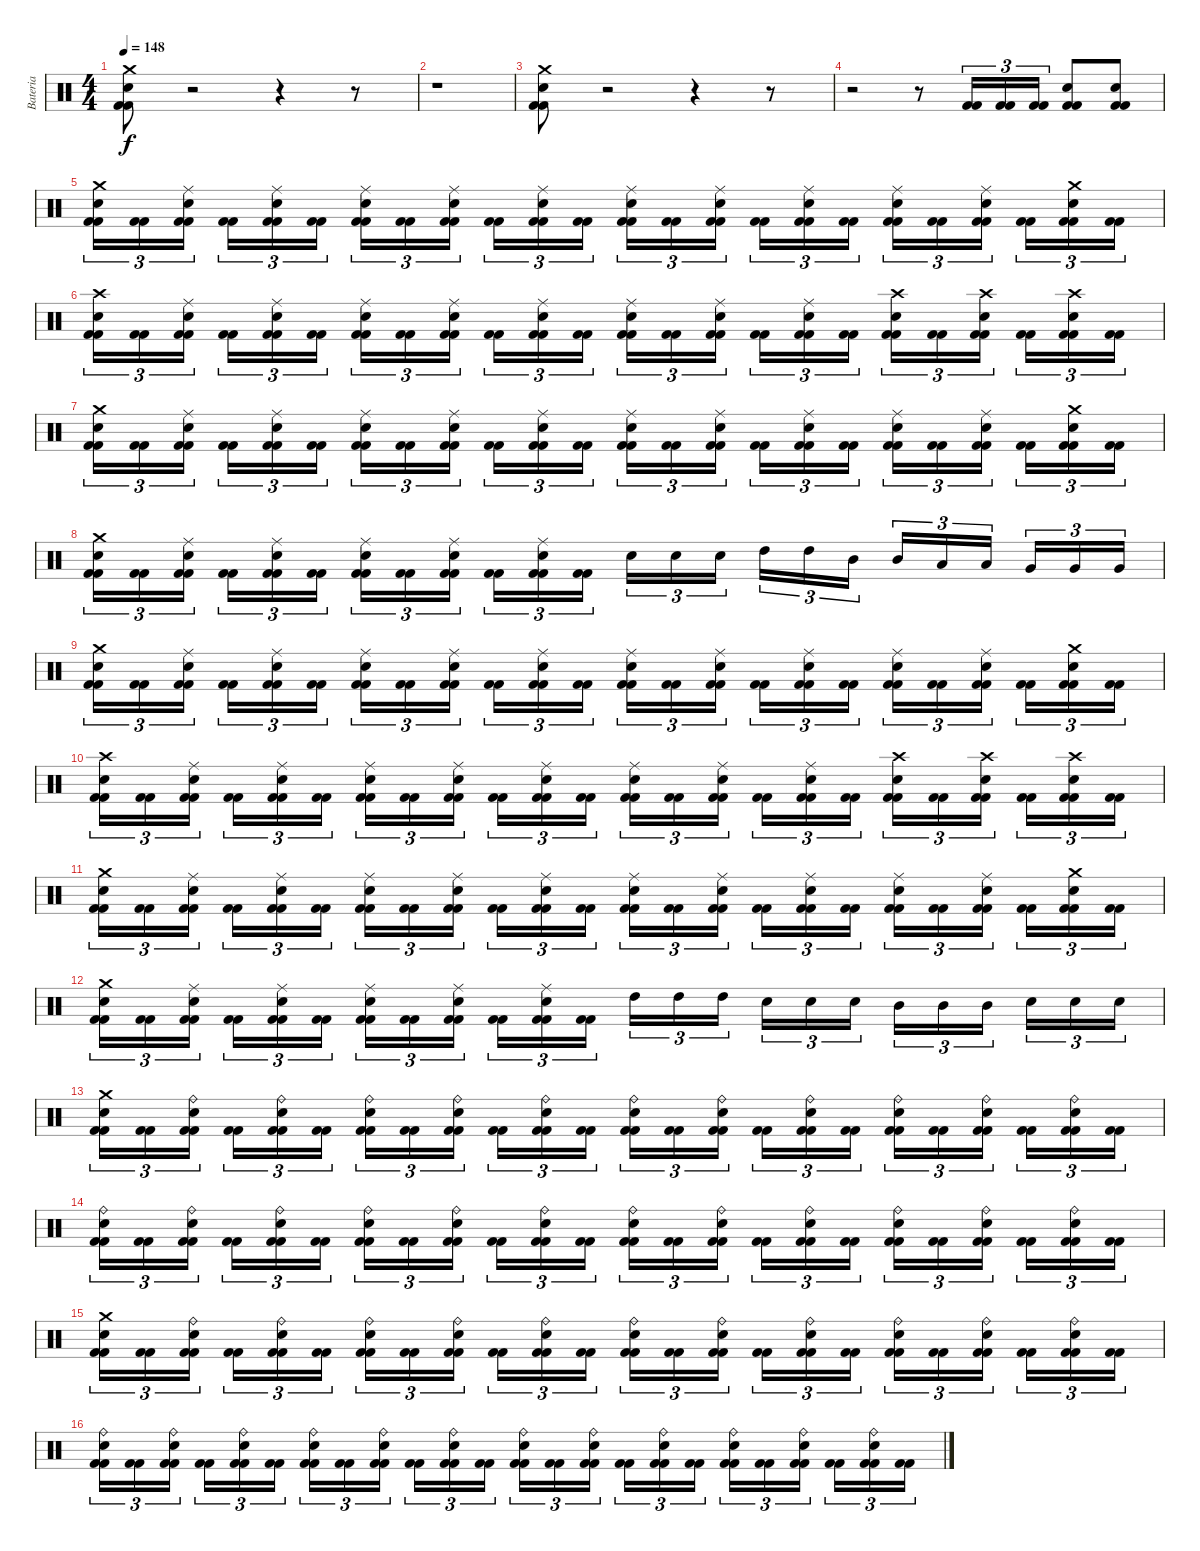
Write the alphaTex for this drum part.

\track ("Bateria" "Bateria") {instrument percussion}
\staff {score}
\articulation defaults
\ts (4 4)
\tempo 148
\clef neutral
\ks c
("Kick (hit) 2" "Kick (hit) 2" "Snare (hit) 2" "Crash medium (hit)").8{dy f} r.2 r.4 r.8 |
r.1 |
("Kick (hit) 2" "Kick (hit) 2" "Snare (hit) 2" "Crash medium (hit)").8 r.2 r.4 r.8 |
r.2 r.8 ("Kick (hit) 2" "Kick (hit) 2").16{tu (3 2)} ("Kick (hit) 2" "Kick (hit) 2").16{tu (3 2)} ("Kick (hit) 2" "Kick (hit) 2").16{tu (3 2)} ("Kick (hit) 2" "Kick (hit) 2" "Snare (hit) 2").8 ("Kick (hit) 2" "Kick (hit) 2" "Snare (hit) 2").8 |
("Kick (hit) 2" "Kick (hit) 2" "Snare (hit) 2" "Crash medium (hit)").16{tu (3 2)} ("Kick (hit) 2" "Kick (hit) 2").16{tu (3 2)} ("Kick (hit) 2" "Kick (hit) 2" "Snare (hit) 2" "Ride (middle)").16{tu (3 2)} ("Kick (hit) 2" "Kick (hit) 2").16{tu (3 2)} ("Kick (hit) 2" "Kick (hit) 2" "Snare (hit) 2" "Ride (middle)").16{tu (3 2)} ("Kick (hit) 2" "Kick (hit) 2").16{tu (3 2)} ("Kick (hit) 2" "Kick (hit) 2" "Snare (hit) 2" "Ride (middle)").16{tu (3 2)} ("Kick (hit) 2" "Kick (hit) 2").16{tu (3 2)} ("Kick (hit) 2" "Kick (hit) 2" "Snare (hit) 2" "Ride (middle)").16{tu (3 2)} ("Kick (hit) 2" "Kick (hit) 2").16{tu (3 2)} ("Kick (hit) 2" "Kick (hit) 2" "Snare (hit) 2" "Ride (middle)").16{tu (3 2)} ("Kick (hit) 2" "Kick (hit) 2").16{tu (3 2)} ("Kick (hit) 2" "Kick (hit) 2" "Snare (hit) 2" "Ride (middle)").16{tu (3 2)} ("Kick (hit) 2" "Kick (hit) 2").16{tu (3 2)} ("Kick (hit) 2" "Kick (hit) 2" "Snare (hit) 2" "Ride (middle)").16{tu (3 2)} ("Kick (hit) 2" "Kick (hit) 2").16{tu (3 2)} ("Kick (hit) 2" "Kick (hit) 2" "Snare (hit) 2" "Ride (middle)").16{tu (3 2)} ("Kick (hit) 2" "Kick (hit) 2").16{tu (3 2)} ("Kick (hit) 2" "Kick (hit) 2" "Snare (hit) 2" "Ride (middle)").16{tu (3 2)} ("Kick (hit) 2" "Kick (hit) 2").16{tu (3 2)} ("Kick (hit) 2" "Kick (hit) 2" "Snare (hit) 2" "Ride (middle)").16{tu (3 2)} ("Kick (hit) 2" "Kick (hit) 2").16{tu (3 2)} ("Kick (hit) 2" "Kick (hit) 2" "Snare (hit) 2" "Crash medium (hit)").16{tu (3 2)} ("Kick (hit) 2" "Kick (hit) 2").16{tu (3 2)} |
("Kick (hit) 2" "Kick (hit) 2" "Snare (hit) 2" "Crash high (hit)").16{tu (3 2)} ("Kick (hit) 2" "Kick (hit) 2").16{tu (3 2)} ("Kick (hit) 2" "Kick (hit) 2" "Snare (hit) 2" "Ride (middle)").16{tu (3 2)} ("Kick (hit) 2" "Kick (hit) 2").16{tu (3 2)} ("Kick (hit) 2" "Kick (hit) 2" "Snare (hit) 2" "Ride (middle)").16{tu (3 2)} ("Kick (hit) 2" "Kick (hit) 2").16{tu (3 2)} ("Kick (hit) 2" "Kick (hit) 2" "Snare (hit) 2" "Ride (middle)").16{tu (3 2)} ("Kick (hit) 2" "Kick (hit) 2").16{tu (3 2)} ("Kick (hit) 2" "Kick (hit) 2" "Snare (hit) 2" "Ride (middle)").16{tu (3 2)} ("Kick (hit) 2" "Kick (hit) 2").16{tu (3 2)} ("Kick (hit) 2" "Kick (hit) 2" "Snare (hit) 2" "Ride (middle)").16{tu (3 2)} ("Kick (hit) 2" "Kick (hit) 2").16{tu (3 2)} ("Kick (hit) 2" "Kick (hit) 2" "Snare (hit) 2" "Ride (middle)").16{tu (3 2)} ("Kick (hit) 2" "Kick (hit) 2").16{tu (3 2)} ("Kick (hit) 2" "Kick (hit) 2" "Snare (hit) 2" "Ride (middle)").16{tu (3 2)} ("Kick (hit) 2" "Kick (hit) 2").16{tu (3 2)} ("Kick (hit) 2" "Kick (hit) 2" "Snare (hit) 2" "Ride (middle)").16{tu (3 2)} ("Kick (hit) 2" "Kick (hit) 2").16{tu (3 2)} ("Kick (hit) 2" "Kick (hit) 2" "Snare (hit) 2" "Crash high (hit)").16{tu (3 2)} ("Kick (hit) 2" "Kick (hit) 2").16{tu (3 2)} ("Kick (hit) 2" "Kick (hit) 2" "Snare (hit) 2" "Crash high (hit)").16{tu (3 2)} ("Kick (hit) 2" "Kick (hit) 2").16{tu (3 2)} ("Kick (hit) 2" "Kick (hit) 2" "Snare (hit) 2" "Crash high (hit)").16{tu (3 2)} ("Kick (hit) 2" "Kick (hit) 2").16{tu (3 2)} |
("Kick (hit) 2" "Kick (hit) 2" "Snare (hit) 2" "Crash medium (hit)").16{tu (3 2)} ("Kick (hit) 2" "Kick (hit) 2").16{tu (3 2)} ("Kick (hit) 2" "Kick (hit) 2" "Snare (hit) 2" "Ride (middle)").16{tu (3 2)} ("Kick (hit) 2" "Kick (hit) 2").16{tu (3 2)} ("Kick (hit) 2" "Kick (hit) 2" "Snare (hit) 2" "Ride (middle)").16{tu (3 2)} ("Kick (hit) 2" "Kick (hit) 2").16{tu (3 2)} ("Kick (hit) 2" "Kick (hit) 2" "Snare (hit) 2" "Ride (middle)").16{tu (3 2)} ("Kick (hit) 2" "Kick (hit) 2").16{tu (3 2)} ("Kick (hit) 2" "Kick (hit) 2" "Snare (hit) 2" "Ride (middle)").16{tu (3 2)} ("Kick (hit) 2" "Kick (hit) 2").16{tu (3 2)} ("Kick (hit) 2" "Kick (hit) 2" "Snare (hit) 2" "Ride (middle)").16{tu (3 2)} ("Kick (hit) 2" "Kick (hit) 2").16{tu (3 2)} ("Kick (hit) 2" "Kick (hit) 2" "Snare (hit) 2" "Ride (middle)").16{tu (3 2)} ("Kick (hit) 2" "Kick (hit) 2").16{tu (3 2)} ("Kick (hit) 2" "Kick (hit) 2" "Snare (hit) 2" "Ride (middle)").16{tu (3 2)} ("Kick (hit) 2" "Kick (hit) 2").16{tu (3 2)} ("Kick (hit) 2" "Kick (hit) 2" "Snare (hit) 2" "Ride (middle)").16{tu (3 2)} ("Kick (hit) 2" "Kick (hit) 2").16{tu (3 2)} ("Kick (hit) 2" "Kick (hit) 2" "Snare (hit) 2" "Ride (middle)").16{tu (3 2)} ("Kick (hit) 2" "Kick (hit) 2").16{tu (3 2)} ("Kick (hit) 2" "Kick (hit) 2" "Snare (hit) 2" "Ride (middle)").16{tu (3 2)} ("Kick (hit) 2" "Kick (hit) 2").16{tu (3 2)} ("Kick (hit) 2" "Kick (hit) 2" "Snare (hit) 2" "Crash medium (hit)").16{tu (3 2)} ("Kick (hit) 2" "Kick (hit) 2").16{tu (3 2)} |
("Kick (hit) 2" "Kick (hit) 2" "Snare (hit) 2" "Crash medium (hit)").16{tu (3 2)} ("Kick (hit) 2" "Kick (hit) 2").16{tu (3 2)} ("Kick (hit) 2" "Kick (hit) 2" "Snare (hit) 2" "Ride (middle)").16{tu (3 2)} ("Kick (hit) 2" "Kick (hit) 2").16{tu (3 2)} ("Kick (hit) 2" "Kick (hit) 2" "Snare (hit) 2" "Ride (middle)").16{tu (3 2)} ("Kick (hit) 2" "Kick (hit) 2").16{tu (3 2)} ("Kick (hit) 2" "Kick (hit) 2" "Snare (hit) 2" "Ride (middle)").16{tu (3 2)} ("Kick (hit) 2" "Kick (hit) 2").16{tu (3 2)} ("Kick (hit) 2" "Kick (hit) 2" "Snare (hit) 2" "Ride (middle)").16{tu (3 2)} ("Kick (hit) 2" "Kick (hit) 2").16{tu (3 2)} ("Kick (hit) 2" "Kick (hit) 2" "Snare (hit) 2" "Ride (middle)").16{tu (3 2)} ("Kick (hit) 2" "Kick (hit) 2").16{tu (3 2)} "Snare (hit) 2".16{tu (3 2)} "Snare (hit) 2".16{tu (3 2)} "Snare (hit) 2".16{tu (3 2)} "High Tom (hit)".16{tu (3 2)} "High Tom (hit)".16{tu (3 2)} "Mid Tom (hit)".16{tu (3 2)} "Mid Tom (hit)".16{tu (3 2)} "Low Tom (hit)".16{tu (3 2)} "Low Tom (hit)".16{tu (3 2)} "Very Low Tom (hit)".16{tu (3 2)} "Very Low Tom (hit)".16{tu (3 2)} "Very Low Tom (hit)".16{tu (3 2)} |
("Kick (hit) 2" "Kick (hit) 2" "Snare (hit) 2" "Crash medium (hit)").16{tu (3 2)} ("Kick (hit) 2" "Kick (hit) 2").16{tu (3 2)} ("Kick (hit) 2" "Kick (hit) 2" "Snare (hit) 2" "Ride (middle)").16{tu (3 2)} ("Kick (hit) 2" "Kick (hit) 2").16{tu (3 2)} ("Kick (hit) 2" "Kick (hit) 2" "Snare (hit) 2" "Ride (middle)").16{tu (3 2)} ("Kick (hit) 2" "Kick (hit) 2").16{tu (3 2)} ("Kick (hit) 2" "Kick (hit) 2" "Snare (hit) 2" "Ride (middle)").16{tu (3 2)} ("Kick (hit) 2" "Kick (hit) 2").16{tu (3 2)} ("Kick (hit) 2" "Kick (hit) 2" "Snare (hit) 2" "Ride (middle)").16{tu (3 2)} ("Kick (hit) 2" "Kick (hit) 2").16{tu (3 2)} ("Kick (hit) 2" "Kick (hit) 2" "Snare (hit) 2" "Ride (middle)").16{tu (3 2)} ("Kick (hit) 2" "Kick (hit) 2").16{tu (3 2)} ("Kick (hit) 2" "Kick (hit) 2" "Snare (hit) 2" "Ride (middle)").16{tu (3 2)} ("Kick (hit) 2" "Kick (hit) 2").16{tu (3 2)} ("Kick (hit) 2" "Kick (hit) 2" "Snare (hit) 2" "Ride (middle)").16{tu (3 2)} ("Kick (hit) 2" "Kick (hit) 2").16{tu (3 2)} ("Kick (hit) 2" "Kick (hit) 2" "Snare (hit) 2" "Ride (middle)").16{tu (3 2)} ("Kick (hit) 2" "Kick (hit) 2").16{tu (3 2)} ("Kick (hit) 2" "Kick (hit) 2" "Snare (hit) 2" "Ride (middle)").16{tu (3 2)} ("Kick (hit) 2" "Kick (hit) 2").16{tu (3 2)} ("Kick (hit) 2" "Kick (hit) 2" "Snare (hit) 2" "Ride (middle)").16{tu (3 2)} ("Kick (hit) 2" "Kick (hit) 2").16{tu (3 2)} ("Kick (hit) 2" "Kick (hit) 2" "Snare (hit) 2" "Crash medium (hit)").16{tu (3 2)} ("Kick (hit) 2" "Kick (hit) 2").16{tu (3 2)} |
("Kick (hit) 2" "Kick (hit) 2" "Snare (hit) 2" "Crash high (hit)").16{tu (3 2)} ("Kick (hit) 2" "Kick (hit) 2").16{tu (3 2)} ("Kick (hit) 2" "Kick (hit) 2" "Snare (hit) 2" "Ride (middle)").16{tu (3 2)} ("Kick (hit) 2" "Kick (hit) 2").16{tu (3 2)} ("Kick (hit) 2" "Kick (hit) 2" "Snare (hit) 2" "Ride (middle)").16{tu (3 2)} ("Kick (hit) 2" "Kick (hit) 2").16{tu (3 2)} ("Kick (hit) 2" "Kick (hit) 2" "Snare (hit) 2" "Ride (middle)").16{tu (3 2)} ("Kick (hit) 2" "Kick (hit) 2").16{tu (3 2)} ("Kick (hit) 2" "Kick (hit) 2" "Snare (hit) 2" "Ride (middle)").16{tu (3 2)} ("Kick (hit) 2" "Kick (hit) 2").16{tu (3 2)} ("Kick (hit) 2" "Kick (hit) 2" "Snare (hit) 2" "Ride (middle)").16{tu (3 2)} ("Kick (hit) 2" "Kick (hit) 2").16{tu (3 2)} ("Kick (hit) 2" "Kick (hit) 2" "Snare (hit) 2" "Ride (middle)").16{tu (3 2)} ("Kick (hit) 2" "Kick (hit) 2").16{tu (3 2)} ("Kick (hit) 2" "Kick (hit) 2" "Snare (hit) 2" "Ride (middle)").16{tu (3 2)} ("Kick (hit) 2" "Kick (hit) 2").16{tu (3 2)} ("Kick (hit) 2" "Kick (hit) 2" "Snare (hit) 2" "Ride (middle)").16{tu (3 2)} ("Kick (hit) 2" "Kick (hit) 2").16{tu (3 2)} ("Kick (hit) 2" "Kick (hit) 2" "Snare (hit) 2" "Crash high (hit)").16{tu (3 2)} ("Kick (hit) 2" "Kick (hit) 2").16{tu (3 2)} ("Kick (hit) 2" "Kick (hit) 2" "Snare (hit) 2" "Crash high (hit)").16{tu (3 2)} ("Kick (hit) 2" "Kick (hit) 2").16{tu (3 2)} ("Kick (hit) 2" "Kick (hit) 2" "Snare (hit) 2" "Crash high (hit)").16{tu (3 2)} ("Kick (hit) 2" "Kick (hit) 2").16{tu (3 2)} |
("Kick (hit) 2" "Kick (hit) 2" "Snare (hit) 2" "Crash medium (hit)").16{tu (3 2)} ("Kick (hit) 2" "Kick (hit) 2").16{tu (3 2)} ("Kick (hit) 2" "Kick (hit) 2" "Snare (hit) 2" "Ride (middle)").16{tu (3 2)} ("Kick (hit) 2" "Kick (hit) 2").16{tu (3 2)} ("Kick (hit) 2" "Kick (hit) 2" "Snare (hit) 2" "Ride (middle)").16{tu (3 2)} ("Kick (hit) 2" "Kick (hit) 2").16{tu (3 2)} ("Kick (hit) 2" "Kick (hit) 2" "Snare (hit) 2" "Ride (middle)").16{tu (3 2)} ("Kick (hit) 2" "Kick (hit) 2").16{tu (3 2)} ("Kick (hit) 2" "Kick (hit) 2" "Snare (hit) 2" "Ride (middle)").16{tu (3 2)} ("Kick (hit) 2" "Kick (hit) 2").16{tu (3 2)} ("Kick (hit) 2" "Kick (hit) 2" "Snare (hit) 2" "Ride (middle)").16{tu (3 2)} ("Kick (hit) 2" "Kick (hit) 2").16{tu (3 2)} ("Kick (hit) 2" "Kick (hit) 2" "Snare (hit) 2" "Ride (middle)").16{tu (3 2)} ("Kick (hit) 2" "Kick (hit) 2").16{tu (3 2)} ("Kick (hit) 2" "Kick (hit) 2" "Snare (hit) 2" "Ride (middle)").16{tu (3 2)} ("Kick (hit) 2" "Kick (hit) 2").16{tu (3 2)} ("Kick (hit) 2" "Kick (hit) 2" "Snare (hit) 2" "Ride (middle)").16{tu (3 2)} ("Kick (hit) 2" "Kick (hit) 2").16{tu (3 2)} ("Kick (hit) 2" "Kick (hit) 2" "Snare (hit) 2" "Ride (middle)").16{tu (3 2)} ("Kick (hit) 2" "Kick (hit) 2").16{tu (3 2)} ("Kick (hit) 2" "Kick (hit) 2" "Snare (hit) 2" "Ride (middle)").16{tu (3 2)} ("Kick (hit) 2" "Kick (hit) 2").16{tu (3 2)} ("Kick (hit) 2" "Kick (hit) 2" "Snare (hit) 2" "Crash medium (hit)").16{tu (3 2)} ("Kick (hit) 2" "Kick (hit) 2").16{tu (3 2)} |
("Kick (hit) 2" "Kick (hit) 2" "Snare (hit) 2" "Crash medium (hit)").16{tu (3 2)} ("Kick (hit) 2" "Kick (hit) 2").16{tu (3 2)} ("Kick (hit) 2" "Kick (hit) 2" "Snare (hit) 2" "Ride (middle)").16{tu (3 2)} ("Kick (hit) 2" "Kick (hit) 2").16{tu (3 2)} ("Kick (hit) 2" "Kick (hit) 2" "Snare (hit) 2" "Ride (middle)").16{tu (3 2)} ("Kick (hit) 2" "Kick (hit) 2").16{tu (3 2)} ("Kick (hit) 2" "Kick (hit) 2" "Snare (hit) 2" "Ride (middle)").16{tu (3 2)} ("Kick (hit) 2" "Kick (hit) 2").16{tu (3 2)} ("Kick (hit) 2" "Kick (hit) 2" "Snare (hit) 2" "Ride (middle)").16{tu (3 2)} ("Kick (hit) 2" "Kick (hit) 2").16{tu (3 2)} ("Kick (hit) 2" "Kick (hit) 2" "Snare (hit) 2" "Ride (middle)").16{tu (3 2)} ("Kick (hit) 2" "Kick (hit) 2").16{tu (3 2)} "High Tom (hit)".16{tu (3 2)} "High Tom (hit)".16{tu (3 2)} "High Tom (hit)".16{tu (3 2)} "Snare (hit) 2".16{tu (3 2)} "Snare (hit) 2".16{tu (3 2)} "Snare (hit) 2".16{tu (3 2)} "Mid Tom (hit)".16{tu (3 2)} "Mid Tom (hit)".16{tu (3 2)} "Mid Tom (hit)".16{tu (3 2)} "Snare (hit) 2".16{tu (3 2)} "Snare (hit) 2".16{tu (3 2)} "Snare (hit) 2".16{tu (3 2)} |
("Kick (hit) 2" "Kick (hit) 2" "Snare (hit) 2" "Crash medium (hit)").16{tu (3 2)} ("Kick (hit) 2" "Kick (hit) 2").16{tu (3 2)} ("Kick (hit) 2" "Kick (hit) 2" "Snare (hit) 2" "Ride (bell)").16{tu (3 2)} ("Kick (hit) 2" "Kick (hit) 2").16{tu (3 2)} ("Kick (hit) 2" "Kick (hit) 2" "Snare (hit) 2" "Ride (bell)").16{tu (3 2)} ("Kick (hit) 2" "Kick (hit) 2").16{tu (3 2)} ("Kick (hit) 2" "Kick (hit) 2" "Snare (hit) 2" "Ride (bell)").16{tu (3 2)} ("Kick (hit) 2" "Kick (hit) 2").16{tu (3 2)} ("Kick (hit) 2" "Kick (hit) 2" "Snare (hit) 2" "Ride (bell)").16{tu (3 2)} ("Kick (hit) 2" "Kick (hit) 2").16{tu (3 2)} ("Kick (hit) 2" "Kick (hit) 2" "Snare (hit) 2" "Ride (bell)").16{tu (3 2)} ("Kick (hit) 2" "Kick (hit) 2").16{tu (3 2)} ("Kick (hit) 2" "Kick (hit) 2" "Snare (hit) 2" "Ride (bell)").16{tu (3 2)} ("Kick (hit) 2" "Kick (hit) 2").16{tu (3 2)} ("Kick (hit) 2" "Kick (hit) 2" "Snare (hit) 2" "Ride (bell)").16{tu (3 2)} ("Kick (hit) 2" "Kick (hit) 2").16{tu (3 2)} ("Kick (hit) 2" "Kick (hit) 2" "Snare (hit) 2" "Ride (bell)").16{tu (3 2)} ("Kick (hit) 2" "Kick (hit) 2").16{tu (3 2)} ("Kick (hit) 2" "Kick (hit) 2" "Snare (hit) 2" "Ride (bell)").16{tu (3 2)} ("Kick (hit) 2" "Kick (hit) 2").16{tu (3 2)} ("Kick (hit) 2" "Kick (hit) 2" "Snare (hit) 2" "Ride (bell)").16{tu (3 2)} ("Kick (hit) 2" "Kick (hit) 2").16{tu (3 2)} ("Kick (hit) 2" "Kick (hit) 2" "Snare (hit) 2" "Ride (bell)").16{tu (3 2)} ("Kick (hit) 2" "Kick (hit) 2").16{tu (3 2)} |
("Kick (hit) 2" "Kick (hit) 2" "Snare (hit) 2" "Ride (bell)").16{tu (3 2)} ("Kick (hit) 2" "Kick (hit) 2").16{tu (3 2)} ("Kick (hit) 2" "Kick (hit) 2" "Snare (hit) 2" "Ride (bell)").16{tu (3 2)} ("Kick (hit) 2" "Kick (hit) 2").16{tu (3 2)} ("Kick (hit) 2" "Kick (hit) 2" "Snare (hit) 2" "Ride (bell)").16{tu (3 2)} ("Kick (hit) 2" "Kick (hit) 2").16{tu (3 2)} ("Kick (hit) 2" "Kick (hit) 2" "Snare (hit) 2" "Ride (bell)").16{tu (3 2)} ("Kick (hit) 2" "Kick (hit) 2").16{tu (3 2)} ("Kick (hit) 2" "Kick (hit) 2" "Snare (hit) 2" "Ride (bell)").16{tu (3 2)} ("Kick (hit) 2" "Kick (hit) 2").16{tu (3 2)} ("Kick (hit) 2" "Kick (hit) 2" "Snare (hit) 2" "Ride (bell)").16{tu (3 2)} ("Kick (hit) 2" "Kick (hit) 2").16{tu (3 2)} ("Kick (hit) 2" "Kick (hit) 2" "Snare (hit) 2" "Ride (bell)").16{tu (3 2)} ("Kick (hit) 2" "Kick (hit) 2").16{tu (3 2)} ("Kick (hit) 2" "Kick (hit) 2" "Snare (hit) 2" "Ride (bell)").16{tu (3 2)} ("Kick (hit) 2" "Kick (hit) 2").16{tu (3 2)} ("Kick (hit) 2" "Kick (hit) 2" "Snare (hit) 2" "Ride (bell)").16{tu (3 2)} ("Kick (hit) 2" "Kick (hit) 2").16{tu (3 2)} ("Kick (hit) 2" "Kick (hit) 2" "Snare (hit) 2" "Ride (bell)").16{tu (3 2)} ("Kick (hit) 2" "Kick (hit) 2").16{tu (3 2)} ("Kick (hit) 2" "Kick (hit) 2" "Snare (hit) 2" "Ride (bell)").16{tu (3 2)} ("Kick (hit) 2" "Kick (hit) 2").16{tu (3 2)} ("Kick (hit) 2" "Kick (hit) 2" "Snare (hit) 2" "Ride (bell)").16{tu (3 2)} ("Kick (hit) 2" "Kick (hit) 2").16{tu (3 2)} |
("Kick (hit) 2" "Kick (hit) 2" "Snare (hit) 2" "Crash medium (hit)").16{tu (3 2)} ("Kick (hit) 2" "Kick (hit) 2").16{tu (3 2)} ("Kick (hit) 2" "Kick (hit) 2" "Snare (hit) 2" "Ride (bell)").16{tu (3 2)} ("Kick (hit) 2" "Kick (hit) 2").16{tu (3 2)} ("Kick (hit) 2" "Kick (hit) 2" "Snare (hit) 2" "Ride (bell)").16{tu (3 2)} ("Kick (hit) 2" "Kick (hit) 2").16{tu (3 2)} ("Kick (hit) 2" "Kick (hit) 2" "Snare (hit) 2" "Ride (bell)").16{tu (3 2)} ("Kick (hit) 2" "Kick (hit) 2").16{tu (3 2)} ("Kick (hit) 2" "Kick (hit) 2" "Snare (hit) 2" "Ride (bell)").16{tu (3 2)} ("Kick (hit) 2" "Kick (hit) 2").16{tu (3 2)} ("Kick (hit) 2" "Kick (hit) 2" "Snare (hit) 2" "Ride (bell)").16{tu (3 2)} ("Kick (hit) 2" "Kick (hit) 2").16{tu (3 2)} ("Kick (hit) 2" "Kick (hit) 2" "Snare (hit) 2" "Ride (bell)").16{tu (3 2)} ("Kick (hit) 2" "Kick (hit) 2").16{tu (3 2)} ("Kick (hit) 2" "Kick (hit) 2" "Snare (hit) 2" "Ride (bell)").16{tu (3 2)} ("Kick (hit) 2" "Kick (hit) 2").16{tu (3 2)} ("Kick (hit) 2" "Kick (hit) 2" "Snare (hit) 2" "Ride (bell)").16{tu (3 2)} ("Kick (hit) 2" "Kick (hit) 2").16{tu (3 2)} ("Kick (hit) 2" "Kick (hit) 2" "Snare (hit) 2" "Ride (bell)").16{tu (3 2)} ("Kick (hit) 2" "Kick (hit) 2").16{tu (3 2)} ("Kick (hit) 2" "Kick (hit) 2" "Snare (hit) 2" "Ride (bell)").16{tu (3 2)} ("Kick (hit) 2" "Kick (hit) 2").16{tu (3 2)} ("Kick (hit) 2" "Kick (hit) 2" "Snare (hit) 2" "Ride (bell)").16{tu (3 2)} ("Kick (hit) 2" "Kick (hit) 2").16{tu (3 2)} |
("Kick (hit) 2" "Kick (hit) 2" "Snare (hit) 2" "Ride (bell)").16{tu (3 2)} ("Kick (hit) 2" "Kick (hit) 2").16{tu (3 2)} ("Kick (hit) 2" "Kick (hit) 2" "Snare (hit) 2" "Ride (bell)").16{tu (3 2)} ("Kick (hit) 2" "Kick (hit) 2").16{tu (3 2)} ("Kick (hit) 2" "Kick (hit) 2" "Snare (hit) 2" "Ride (bell)").16{tu (3 2)} ("Kick (hit) 2" "Kick (hit) 2").16{tu (3 2)} ("Kick (hit) 2" "Kick (hit) 2" "Snare (hit) 2" "Ride (bell)").16{tu (3 2)} ("Kick (hit) 2" "Kick (hit) 2").16{tu (3 2)} ("Kick (hit) 2" "Kick (hit) 2" "Snare (hit) 2" "Ride (bell)").16{tu (3 2)} ("Kick (hit) 2" "Kick (hit) 2").16{tu (3 2)} ("Kick (hit) 2" "Kick (hit) 2" "Snare (hit) 2" "Ride (bell)").16{tu (3 2)} ("Kick (hit) 2" "Kick (hit) 2").16{tu (3 2)} ("Kick (hit) 2" "Kick (hit) 2" "Snare (hit) 2" "Ride (bell)").16{tu (3 2)} ("Kick (hit) 2" "Kick (hit) 2").16{tu (3 2)} ("Kick (hit) 2" "Kick (hit) 2" "Snare (hit) 2" "Ride (bell)").16{tu (3 2)} ("Kick (hit) 2" "Kick (hit) 2").16{tu (3 2)} ("Kick (hit) 2" "Kick (hit) 2" "Snare (hit) 2" "Ride (bell)").16{tu (3 2)} ("Kick (hit) 2" "Kick (hit) 2").16{tu (3 2)} ("Kick (hit) 2" "Kick (hit) 2" "Snare (hit) 2" "Ride (bell)").16{tu (3 2)} ("Kick (hit) 2" "Kick (hit) 2").16{tu (3 2)} ("Kick (hit) 2" "Kick (hit) 2" "Snare (hit) 2" "Ride (bell)").16{tu (3 2)} ("Kick (hit) 2" "Kick (hit) 2").16{tu (3 2)} ("Kick (hit) 2" "Kick (hit) 2" "Snare (hit) 2" "Ride (bell)").16{tu (3 2)} ("Kick (hit) 2" "Kick (hit) 2").16{tu (3 2)}
